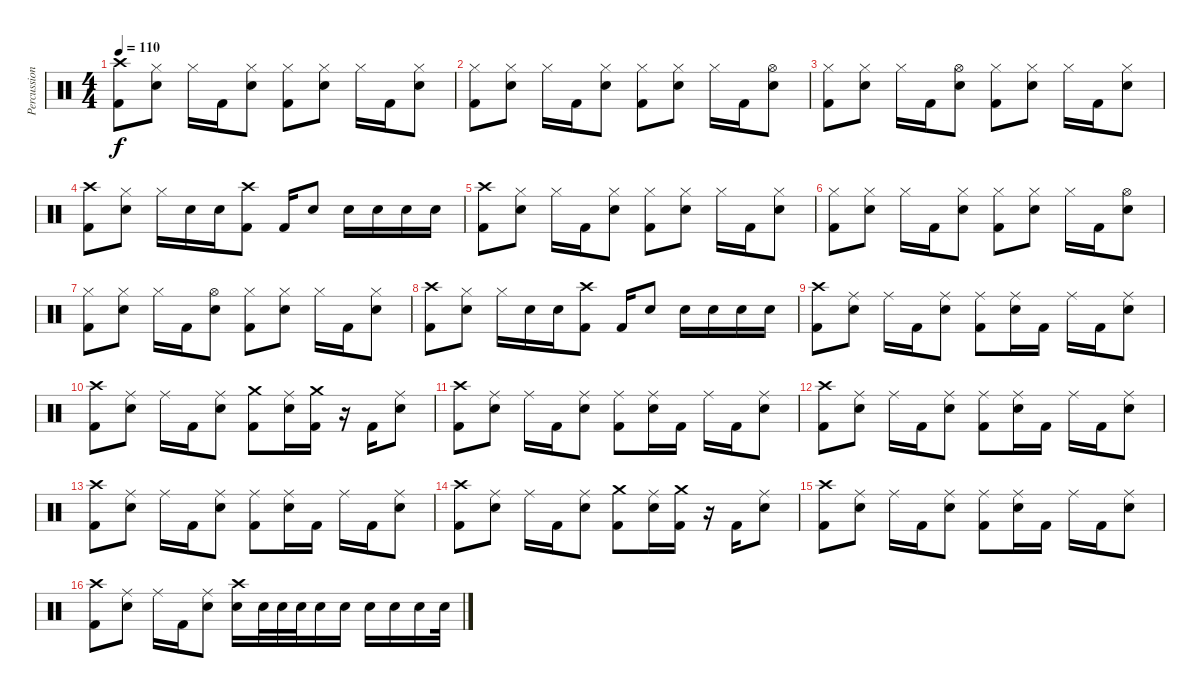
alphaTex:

\track ("Percussion" "Percussion") {instrument percussion}
\staff {score}
\articulation defaults
\ts (4 4)
\tempo 110
\clef neutral
\ks c
("Crash high (hit)" "Kick (hit) 2").8{dy f} ("Hi-Hat (closed)" "Electric Snare (hit)").8 "Hi-Hat (closed)".16 "Kick (hit) 2".16 ("Hi-Hat (closed)" "Electric Snare (hit)").8 ("Hi-Hat (closed)" "Kick (hit) 2").8 ("Hi-Hat (closed)" "Electric Snare (hit)").8 "Hi-Hat (closed)".16 "Kick (hit) 2".16 ("Hi-Hat (closed)" "Electric Snare (hit)").8 |
("Hi-Hat (closed)" "Kick (hit) 2").8 ("Hi-Hat (closed)" "Electric Snare (hit)").8 "Hi-Hat (closed)".16 "Kick (hit) 2".16 ("Hi-Hat (closed)" "Electric Snare (hit)").8 ("Hi-Hat (closed)" "Kick (hit) 2").8 ("Hi-Hat (closed)" "Electric Snare (hit)").8 "Hi-Hat (closed)".16 "Kick (hit) 2".16 ("Hi-Hat (open)" "Electric Snare (hit)").8 |
("Hi-Hat (closed)" "Kick (hit) 2").8 ("Hi-Hat (closed)" "Electric Snare (hit)").8 "Hi-Hat (closed)".16 "Kick (hit) 2".16 ("Hi-Hat (open)" "Electric Snare (hit)").8 ("Hi-Hat (closed)" "Kick (hit) 2").8 ("Hi-Hat (closed)" "Electric Snare (hit)").8 "Hi-Hat (closed)".16 "Kick (hit) 2".16 ("Hi-Hat (closed)" "Electric Snare (hit)").8 |
("Crash high (hit)" "Kick (hit) 2").8 ("Hi-Hat (closed)" "Electric Snare (hit)").8 "Hi-Hat (closed)".16 "Electric Snare (hit)".16 "Electric Snare (hit)".16 ("Crash high (hit)" "Kick (hit) 2").8 "Kick (hit) 2".16 "Electric Snare (hit)".8 "Electric Snare (hit)".16 "Electric Snare (hit)".16 "Electric Snare (hit)".16 "Electric Snare (hit)".16 |
("Crash high (hit)" "Kick (hit) 2").8 ("Hi-Hat (closed)" "Electric Snare (hit)").8 "Hi-Hat (closed)".16 "Kick (hit) 2".16 ("Hi-Hat (closed)" "Electric Snare (hit)").8 ("Hi-Hat (closed)" "Kick (hit) 2").8 ("Hi-Hat (closed)" "Electric Snare (hit)").8 "Hi-Hat (closed)".16 "Kick (hit) 2".16 ("Hi-Hat (closed)" "Electric Snare (hit)").8 |
("Hi-Hat (closed)" "Kick (hit) 2").8 ("Hi-Hat (closed)" "Electric Snare (hit)").8 "Hi-Hat (closed)".16 "Kick (hit) 2".16 ("Hi-Hat (closed)" "Electric Snare (hit)").8 ("Hi-Hat (closed)" "Kick (hit) 2").8 ("Hi-Hat (closed)" "Electric Snare (hit)").8 "Hi-Hat (closed)".16 "Kick (hit) 2".16 ("Hi-Hat (open)" "Electric Snare (hit)").8 |
("Hi-Hat (closed)" "Kick (hit) 2").8 ("Hi-Hat (closed)" "Electric Snare (hit)").8 "Hi-Hat (closed)".16 "Kick (hit) 2".16 ("Hi-Hat (open)" "Electric Snare (hit)").8 ("Hi-Hat (closed)" "Kick (hit) 2").8 ("Hi-Hat (closed)" "Electric Snare (hit)").8 "Hi-Hat (closed)".16 "Kick (hit) 2".16 ("Hi-Hat (closed)" "Electric Snare (hit)").8 |
("Crash high (hit)" "Kick (hit) 2").8 ("Hi-Hat (closed)" "Electric Snare (hit)").8 "Hi-Hat (closed)".16 "Electric Snare (hit)".16 "Electric Snare (hit)".16 ("Crash high (hit)" "Kick (hit) 2").8 "Kick (hit) 2".16 "Electric Snare (hit)".8 "Electric Snare (hit)".16 "Electric Snare (hit)".16 "Electric Snare (hit)".16 "Electric Snare (hit)".16 |
("Crash high (hit)" "Kick (hit) 2").8 ("Ride (middle)" "Electric Snare (hit)").8 "Ride (middle)".16 "Kick (hit) 2".16 ("Ride (middle)" "Electric Snare (hit)").8 ("Ride (middle)" "Kick (hit) 2").8 ("Ride (middle)" "Electric Snare (hit)").16 "Kick (hit) 2".16 "Ride (middle)".16 "Kick (hit) 2".16 ("Ride (middle)" "Electric Snare (hit)").8 |
("Crash high (hit)" "Kick (hit) 2").8 ("Ride (middle)" "Electric Snare (hit)").8 "Ride (middle)".16 "Kick (hit) 2".16 ("Ride (middle)" "Electric Snare (hit)").8 ("Crash medium (hit)" "Kick (hit) 2").8 ("Ride (middle)" "Electric Snare (hit)").16 ("Crash medium (hit)" "Kick (hit) 2").16 r.16 "Kick (hit) 2".16 ("Ride (middle)" "Electric Snare (hit)").8 |
("Crash high (hit)" "Kick (hit) 2").8 ("Ride (middle)" "Electric Snare (hit)").8 "Ride (middle)".16 "Kick (hit) 2".16 ("Ride (middle)" "Electric Snare (hit)").8 ("Ride (middle)" "Kick (hit) 2").8 ("Ride (middle)" "Electric Snare (hit)").16 "Kick (hit) 2".16 "Ride (middle)".16 "Kick (hit) 2".16 ("Ride (middle)" "Electric Snare (hit)").8 |
("Crash high (hit)" "Kick (hit) 2").8 ("Ride (middle)" "Electric Snare (hit)").8 "Ride (middle)".16 "Kick (hit) 2".16 ("Ride (middle)" "Electric Snare (hit)").8 ("Ride (middle)" "Kick (hit) 2").8 ("Ride (middle)" "Electric Snare (hit)").16 "Kick (hit) 2".16 "Ride (middle)".16 "Kick (hit) 2".16 ("Ride (middle)" "Electric Snare (hit)").8 |
("Crash high (hit)" "Kick (hit) 2").8 ("Ride (middle)" "Electric Snare (hit)").8 "Ride (middle)".16 "Kick (hit) 2".16 ("Ride (middle)" "Electric Snare (hit)").8 ("Ride (middle)" "Kick (hit) 2").8 ("Ride (middle)" "Electric Snare (hit)").16 "Kick (hit) 2".16 "Ride (middle)".16 "Kick (hit) 2".16 ("Ride (middle)" "Electric Snare (hit)").8 |
("Crash high (hit)" "Kick (hit) 2").8 ("Ride (middle)" "Electric Snare (hit)").8 "Ride (middle)".16 "Kick (hit) 2".16 ("Ride (middle)" "Electric Snare (hit)").8 ("Crash medium (hit)" "Kick (hit) 2").8 ("Ride (middle)" "Electric Snare (hit)").16 ("Crash medium (hit)" "Kick (hit) 2").16 r.16 "Kick (hit) 2".16 ("Ride (middle)" "Electric Snare (hit)").8 |
("Crash high (hit)" "Kick (hit) 2").8 ("Ride (middle)" "Electric Snare (hit)").8 "Ride (middle)".16 "Kick (hit) 2".16 ("Ride (middle)" "Electric Snare (hit)").8 ("Ride (middle)" "Kick (hit) 2").8 ("Ride (middle)" "Electric Snare (hit)").16 "Kick (hit) 2".16 "Ride (middle)".16 "Kick (hit) 2".16 ("Ride (middle)" "Electric Snare (hit)").8 |
("Crash high (hit)" "Kick (hit) 2").8 ("Ride (middle)" "Electric Snare (hit)").8 "Ride (middle)".16 "Kick (hit) 2".16 ("Ride (middle)" "Electric Snare (hit)").8 ("Crash high (hit)" "Electric Snare (hit)").16 "Electric Snare (hit)".32 "Electric Snare (hit)".32 "Electric Snare (hit)".32 "Electric Snare (hit)".16 "Electric Snare (hit)".16 "Electric Snare (hit)".16 "Electric Snare (hit)".16 "Electric Snare (hit)".16 "Electric Snare (hit)".32
